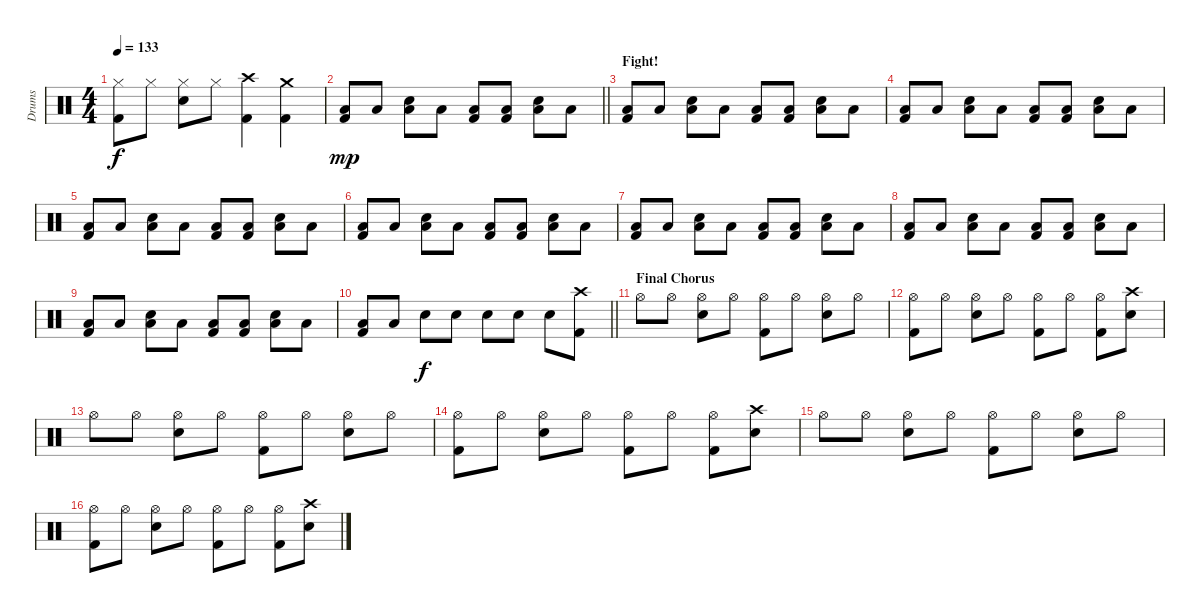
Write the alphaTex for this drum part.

\track ("Drums" "Drums") {instrument percussion}
\staff {score}
\articulation defaults
\ts (4 4)
\tempo 133
\clef neutral
\ks c
("Hi-Hat (closed)" "Kick (hit) 2").8{dy f} "Hi-Hat (closed)".8 ("Hi-Hat (closed)" "Snare (hit) 2").8 "Hi-Hat (closed)".8 ("Crash high (hit)" "Kick (hit) 2").4 ("Crash medium (hit)" "Kick (hit) 2").4 |
\barLineRight lightlight
("Low Floor Tom (hit)" "Kick (hit) 2").8{dy mp} "Low Floor Tom (hit)".8 ("Low Floor Tom (hit)" "Snare (hit) 2").8 "Low Floor Tom (hit)".8 ("Low Floor Tom (hit)" "Kick (hit) 2").8 ("Low Floor Tom (hit)" "Kick (hit) 2").8 ("Low Floor Tom (hit)" "Snare (hit) 2").8 "Low Floor Tom (hit)".8 |
\section ("" "Fight!")
("Low Floor Tom (hit)" "Kick (hit) 2").8 "Low Floor Tom (hit)".8 ("Low Floor Tom (hit)" "Snare (hit) 2").8 "Low Floor Tom (hit)".8 ("Low Floor Tom (hit)" "Kick (hit) 2").8 ("Low Floor Tom (hit)" "Kick (hit) 2").8 ("Low Floor Tom (hit)" "Snare (hit) 2").8 "Low Floor Tom (hit)".8 |
("Low Floor Tom (hit)" "Kick (hit) 2").8 "Low Floor Tom (hit)".8 ("Low Floor Tom (hit)" "Snare (hit) 2").8 "Low Floor Tom (hit)".8 ("Low Floor Tom (hit)" "Kick (hit) 2").8 ("Low Floor Tom (hit)" "Kick (hit) 2").8 ("Low Floor Tom (hit)" "Snare (hit) 2").8 "Low Floor Tom (hit)".8 |
("Low Floor Tom (hit)" "Kick (hit) 2").8 "Low Floor Tom (hit)".8 ("Low Floor Tom (hit)" "Snare (hit) 2").8 "Low Floor Tom (hit)".8 ("Low Floor Tom (hit)" "Kick (hit) 2").8 ("Low Floor Tom (hit)" "Kick (hit) 2").8 ("Low Floor Tom (hit)" "Snare (hit) 2").8 "Low Floor Tom (hit)".8 |
("Low Floor Tom (hit)" "Kick (hit) 2").8 "Low Floor Tom (hit)".8 ("Low Floor Tom (hit)" "Snare (hit) 2").8 "Low Floor Tom (hit)".8 ("Low Floor Tom (hit)" "Kick (hit) 2").8 ("Low Floor Tom (hit)" "Kick (hit) 2").8 ("Low Floor Tom (hit)" "Snare (hit) 2").8 "Low Floor Tom (hit)".8 |
("Low Floor Tom (hit)" "Kick (hit) 2").8 "Low Floor Tom (hit)".8 ("Low Floor Tom (hit)" "Snare (hit) 2").8 "Low Floor Tom (hit)".8 ("Low Floor Tom (hit)" "Kick (hit) 2").8 ("Low Floor Tom (hit)" "Kick (hit) 2").8 ("Low Floor Tom (hit)" "Snare (hit) 2").8 "Low Floor Tom (hit)".8 |
("Low Floor Tom (hit)" "Kick (hit) 2").8 "Low Floor Tom (hit)".8 ("Low Floor Tom (hit)" "Snare (hit) 2").8 "Low Floor Tom (hit)".8 ("Low Floor Tom (hit)" "Kick (hit) 2").8 ("Low Floor Tom (hit)" "Kick (hit) 2").8 ("Low Floor Tom (hit)" "Snare (hit) 2").8 "Low Floor Tom (hit)".8 |
("Low Floor Tom (hit)" "Kick (hit) 2").8 "Low Floor Tom (hit)".8 ("Low Floor Tom (hit)" "Snare (hit) 2").8 "Low Floor Tom (hit)".8 ("Low Floor Tom (hit)" "Kick (hit) 2").8 ("Low Floor Tom (hit)" "Kick (hit) 2").8 ("Low Floor Tom (hit)" "Snare (hit) 2").8 "Low Floor Tom (hit)".8 |
\barLineRight lightlight
("Low Floor Tom (hit)" "Kick (hit) 2").8 "Low Floor Tom (hit)".8 "Snare (hit) 2".8{dy f} "Snare (hit) 2".8 "Snare (hit) 2".8 "Snare (hit) 2".8 "Snare (hit) 2".8 ("Crash high (hit)" "Kick (hit) 2").8 |
\section ("" "Final Chorus")
"Hi-Hat (open)".8 "Hi-Hat (open)".8 ("Hi-Hat (open)" "Snare (hit) 2").8 "Hi-Hat (open)".8 ("Hi-Hat (open)" "Kick (hit) 2").8 "Hi-Hat (open)".8 ("Hi-Hat (open)" "Snare (hit) 2").8 "Hi-Hat (open)".8 |
("Hi-Hat (open)" "Kick (hit) 2").8 "Hi-Hat (open)".8 ("Hi-Hat (open)" "Snare (hit) 2").8 "Hi-Hat (open)".8 ("Hi-Hat (open)" "Kick (hit) 2").8 "Hi-Hat (open)".8 ("Hi-Hat (open)" "Kick (hit) 2").8 ("Crash high (hit)" "Snare (hit) 2").8 |
"Hi-Hat (open)".8 "Hi-Hat (open)".8 ("Hi-Hat (open)" "Snare (hit) 2").8 "Hi-Hat (open)".8 ("Hi-Hat (open)" "Kick (hit) 2").8 "Hi-Hat (open)".8 ("Hi-Hat (open)" "Snare (hit) 2").8 "Hi-Hat (open)".8 |
("Hi-Hat (open)" "Kick (hit) 2").8 "Hi-Hat (open)".8 ("Hi-Hat (open)" "Snare (hit) 2").8 "Hi-Hat (open)".8 ("Hi-Hat (open)" "Kick (hit) 2").8 "Hi-Hat (open)".8 ("Hi-Hat (open)" "Kick (hit) 2").8 ("Crash high (hit)" "Snare (hit) 2").8 |
"Hi-Hat (open)".8 "Hi-Hat (open)".8 ("Hi-Hat (open)" "Snare (hit) 2").8 "Hi-Hat (open)".8 ("Hi-Hat (open)" "Kick (hit) 2").8 "Hi-Hat (open)".8 ("Hi-Hat (open)" "Snare (hit) 2").8 "Hi-Hat (open)".8 |
("Hi-Hat (open)" "Kick (hit) 2").8 "Hi-Hat (open)".8 ("Hi-Hat (open)" "Snare (hit) 2").8 "Hi-Hat (open)".8 ("Hi-Hat (open)" "Kick (hit) 2").8 "Hi-Hat (open)".8 ("Hi-Hat (open)" "Kick (hit) 2").8 ("Crash high (hit)" "Snare (hit) 2").8
